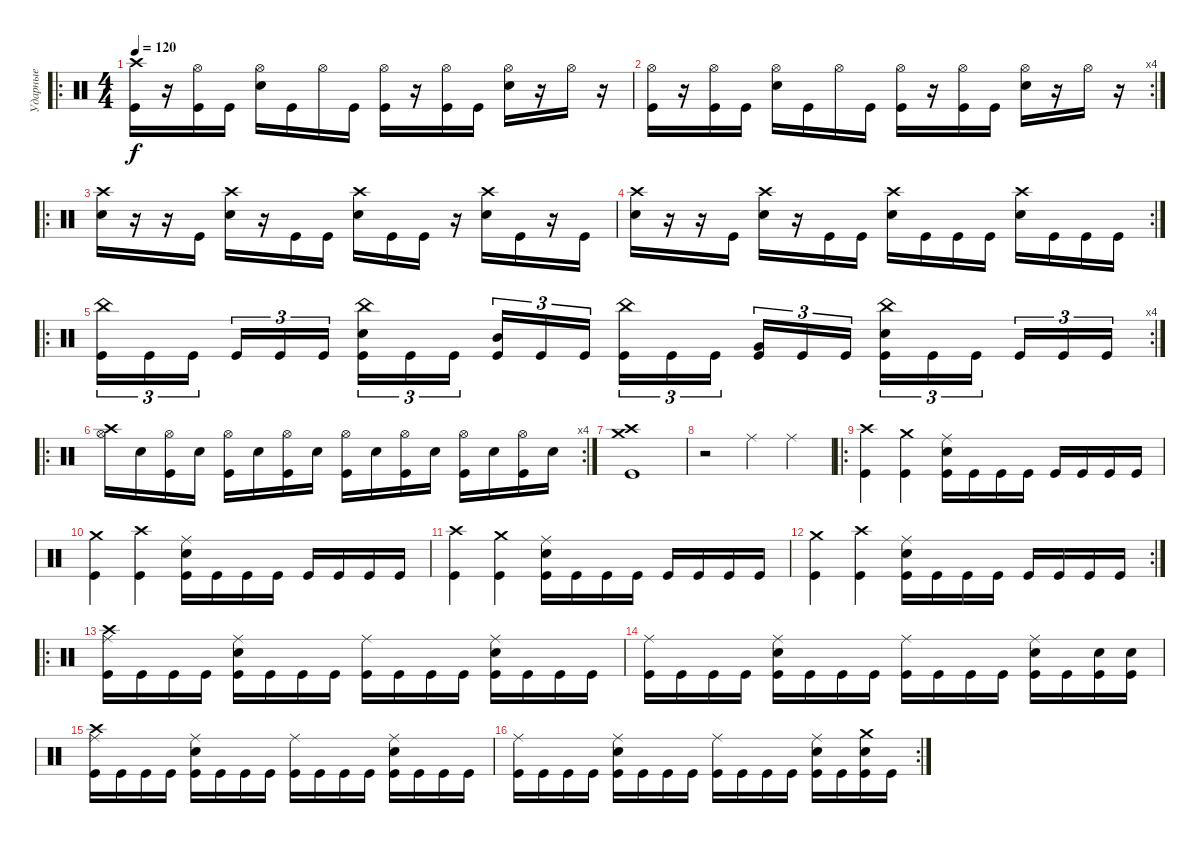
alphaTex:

\track ("Ударные" "Ударные") {instrument percussion}
\staff {score}
\articulation defaults
\ro
\ts (4 4)
\tempo 120
\clef neutral
\ks c
("Crash high (hit)" "Kick (hit)").16{dy f} r.16 ("Hi-Hat (open)" "Kick (hit)").16 "Kick (hit)".16 ("Hi-Hat (open)" "Snare (hit) 2").16 "Kick (hit)".16 "Hi-Hat (open)".16 "Kick (hit)".16 ("Hi-Hat (open)" "Kick (hit)").16 r.16 ("Hi-Hat (open)" "Kick (hit)").16 "Kick (hit)".16 ("Hi-Hat (open)" "Snare (hit) 2").16 r.16 "Hi-Hat (open)".16 r.16 |
\rc 4
("Hi-Hat (open)" "Kick (hit)").16 r.16 ("Hi-Hat (open)" "Kick (hit)").16 "Kick (hit)".16 ("Hi-Hat (open)" "Snare (hit) 2").16 "Kick (hit)".16 "Hi-Hat (open)".16 "Kick (hit)".16 ("Hi-Hat (open)" "Kick (hit)").16 r.16 ("Hi-Hat (open)" "Kick (hit)").16 "Kick (hit)".16 ("Hi-Hat (open)" "Snare (hit) 2").16 r.16 "Hi-Hat (open)".16 r.16 |
\ro
("Crash high (hit)" "Snare (hit) 2").16 r.16 r.16 "Kick (hit)".16 ("Crash high (hit)" "Snare (hit) 2").16 r.16 "Kick (hit)".16 "Kick (hit)".16 ("Crash high (hit)" "Snare (hit) 2").16 "Kick (hit)".16 "Kick (hit)".16 r.16 ("Crash high (hit)" "Snare (hit) 2").16 "Kick (hit)".16 r.16 "Kick (hit)".16 |
\rc 2
("Crash high (hit)" "Snare (hit) 2").16 r.16 r.16 "Kick (hit)".16 ("Crash high (hit)" "Snare (hit) 2").16 r.16 "Kick (hit)".16 "Kick (hit)".16 ("Crash high (hit)" "Snare (hit) 2").16 "Kick (hit)".16 "Kick (hit)".16 "Kick (hit)".16 ("Crash high (hit)" "Snare (hit) 2").16 "Kick (hit)".16 "Kick (hit)".16 "Kick (hit)".16 |
\ro
\rc 4
("China (hit)" "Kick (hit)").16{tu (3 2)} "Kick (hit)".16{tu (3 2)} "Kick (hit)".16{tu (3 2) beam splitsecondary} "Kick (hit)".16{tu (3 2)} "Kick (hit)".16{tu (3 2)} "Kick (hit)".16{tu (3 2)} ("China (hit)" "Snare (hit) 2" "Kick (hit)").16{tu (3 2)} "Kick (hit)".16{tu (3 2)} "Kick (hit)".16{tu (3 2) beam splitsecondary} ("Mid Tom (hit)" "Kick (hit)").16{tu (3 2)} "Kick (hit)".16{tu (3 2)} "Kick (hit)".16{tu (3 2)} ("China (hit)" "Kick (hit)").16{tu (3 2)} "Kick (hit)".16{tu (3 2)} "Kick (hit)".16{tu (3 2) beam splitsecondary} ("Very Low Tom (hit)" "Kick (hit)").16{tu (3 2)} "Kick (hit)".16{tu (3 2)} "Kick (hit)".16{tu (3 2)} ("China (hit)" "Snare (hit) 2" "Kick (hit)").16{tu (3 2)} "Kick (hit)".16{tu (3 2)} "Kick (hit)".16{tu (3 2) beam splitsecondary} "Kick (hit)".16{tu (3 2)} "Kick (hit)".16{tu (3 2)} "Kick (hit)".16{tu (3 2)} |
\ro
\rc 4
("Crash high (hit)" "Hi-Hat (open)").16 "Snare (hit) 2".16 ("Kick (hit)" "Hi-Hat (open)").16 "Snare (hit) 2".16 ("Kick (hit)" "Hi-Hat (open)").16 "Snare (hit) 2".16 ("Kick (hit)" "Hi-Hat (open)").16 "Snare (hit) 2".16 ("Kick (hit)" "Hi-Hat (open)").16 "Snare (hit) 2".16 ("Kick (hit)" "Hi-Hat (open)").16 "Snare (hit) 2".16 ("Kick (hit)" "Hi-Hat (open)").16 "Snare (hit) 2".16 ("Kick (hit)" "Hi-Hat (open)").16 "Snare (hit) 2".16 |
("Kick (hit)" "Crash medium (hit)" "Crash high (hit)").1 |
r.2 "Ride (middle)".4 "Ride (middle)".4 |
\ro
("Crash high (hit)" "Kick (hit)").4 ("Crash medium (hit)" "Kick (hit)").4 ("Snare (hit) 2" "Kick (hit)" "Ride (middle)").16 "Kick (hit)".16 "Kick (hit)".16 "Kick (hit)".16 "Kick (hit)".16 "Kick (hit)".16 "Kick (hit)".16 "Kick (hit)".16 |
("Crash medium (hit)" "Kick (hit)").4 ("Crash high (hit)" "Kick (hit)").4 ("Snare (hit) 2" "Kick (hit)" "Ride (middle)").16 "Kick (hit)".16 "Kick (hit)".16 "Kick (hit)".16 "Kick (hit)".16 "Kick (hit)".16 "Kick (hit)".16 "Kick (hit)".16 |
("Crash high (hit)" "Kick (hit)").4 ("Crash medium (hit)" "Kick (hit)").4 ("Snare (hit) 2" "Kick (hit)" "Ride (middle)").16 "Kick (hit)".16 "Kick (hit)".16 "Kick (hit)".16 "Kick (hit)".16 "Kick (hit)".16 "Kick (hit)".16 "Kick (hit)".16 |
\rc 2
("Crash medium (hit)" "Kick (hit)").4 ("Crash high (hit)" "Kick (hit)").4 ("Snare (hit) 2" "Kick (hit)" "Ride (middle)").16 "Kick (hit)".16 "Kick (hit)".16 "Kick (hit)".16 "Kick (hit)".16 "Kick (hit)".16 "Kick (hit)".16 "Kick (hit)".16 |
\ro
("Ride (middle)" "Crash high (hit)" "Kick (hit)").16 "Kick (hit)".16 "Kick (hit)".16 "Kick (hit)".16 ("Ride (middle)" "Snare (hit) 2" "Kick (hit)").16 "Kick (hit)".16 "Kick (hit)".16 "Kick (hit)".16 ("Ride (middle)" "Kick (hit)").16 "Kick (hit)".16 "Kick (hit)".16 "Kick (hit)".16 ("Ride (middle)" "Snare (hit) 2" "Kick (hit)").16 "Kick (hit)".16 "Kick (hit)".16 "Kick (hit)".16 |
("Ride (middle)" "Kick (hit)").16 "Kick (hit)".16 "Kick (hit)".16 "Kick (hit)".16 ("Ride (middle)" "Snare (hit) 2" "Kick (hit)").16 "Kick (hit)".16 "Kick (hit)".16 "Kick (hit)".16 ("Ride (middle)" "Kick (hit)").16 "Kick (hit)".16 "Kick (hit)".16 "Kick (hit)".16 ("Ride (middle)" "Snare (hit) 2" "Kick (hit)").16 "Kick (hit)".16 ("Snare (hit) 2" "Kick (hit)").16 ("Snare (hit) 2" "Kick (hit)").16 |
("Ride (middle)" "Crash high (hit)" "Kick (hit)").16 "Kick (hit)".16 "Kick (hit)".16 "Kick (hit)".16 ("Ride (middle)" "Snare (hit) 2" "Kick (hit)").16 "Kick (hit)".16 "Kick (hit)".16 "Kick (hit)".16 ("Ride (middle)" "Kick (hit)").16 "Kick (hit)".16 "Kick (hit)".16 "Kick (hit)".16 ("Ride (middle)" "Snare (hit) 2" "Kick (hit)").16 "Kick (hit)".16 "Kick (hit)".16 "Kick (hit)".16 |
\rc 2
("Ride (middle)" "Kick (hit)").16 "Kick (hit)".16 "Kick (hit)".16 "Kick (hit)".16 ("Ride (middle)" "Snare (hit) 2" "Kick (hit)").16 "Kick (hit)".16 "Kick (hit)".16 "Kick (hit)".16 ("Ride (middle)" "Kick (hit)").16 "Kick (hit)".16 "Kick (hit)".16 "Kick (hit)".16 ("Ride (middle)" "Snare (hit) 2" "Kick (hit)").16 "Kick (hit)".16 ("Crash medium (hit)" "Snare (hit) 2" "Kick (hit)").16 "Kick (hit)".16
